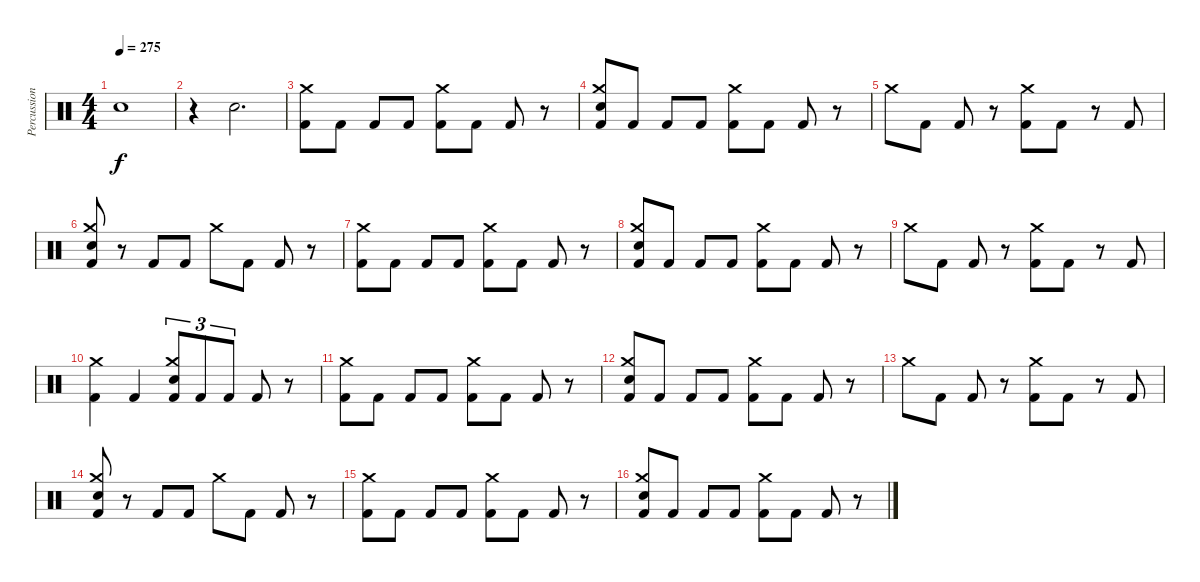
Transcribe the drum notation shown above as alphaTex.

\track ("Percussion" "Percussion") {instrument percussion}
\staff {score}
\articulation defaults
\ts (4 4)
\tempo 275
\clef neutral
\ks c "Snare (hit)"{t}.1{dy f}
|
r.4 "Electric Snare (hit)".2{d} |
("Crash medium (hit)" "Kick (hit) 2").8 "Kick (hit) 2".8 "Kick (hit) 2".8 "Kick (hit) 2".8 ("Crash medium (hit)" "Kick (hit) 2").8 "Kick (hit) 2".8 "Kick (hit) 2".8 r.8 |
("Crash medium (hit)" "Electric Snare (hit)" "Kick (hit) 2").8 "Kick (hit) 2".8 "Kick (hit) 2".8 "Kick (hit) 2".8 ("Crash medium (hit)" "Kick (hit) 2").8 "Kick (hit) 2".8 "Kick (hit) 2".8 r.8 |
"Crash medium (hit)".8 "Kick (hit) 2".8 "Kick (hit) 2".8 r.8 ("Crash medium (hit)" "Kick (hit) 2").8 "Kick (hit) 2".8 r.8 "Kick (hit) 2".8 |
("Crash medium (hit)" "Electric Snare (hit)" "Kick (hit) 2").8 r.8 "Kick (hit) 2".8 "Kick (hit) 2".8 "Crash medium (hit)".8 "Kick (hit) 2".8 "Kick (hit) 2".8 r.8 |
("Crash medium (hit)" "Kick (hit) 2").8 "Kick (hit) 2".8 "Kick (hit) 2".8 "Kick (hit) 2".8 ("Crash medium (hit)" "Kick (hit) 2").8 "Kick (hit) 2".8 "Kick (hit) 2".8 r.8 |
("Crash medium (hit)" "Electric Snare (hit)" "Kick (hit) 2").8 "Kick (hit) 2".8 "Kick (hit) 2".8 "Kick (hit) 2".8 ("Crash medium (hit)" "Kick (hit) 2").8 "Kick (hit) 2".8 "Kick (hit) 2".8 r.8 |
"Crash medium (hit)".8 "Kick (hit) 2".8 "Kick (hit) 2".8 r.8 ("Crash medium (hit)" "Kick (hit) 2").8 "Kick (hit) 2".8 r.8 "Kick (hit) 2".8 |
("Crash medium (hit)" "Kick (hit) 2").4 "Kick (hit) 2".4 ("Crash medium (hit)" "Electric Snare (hit)" "Kick (hit) 2").8{tu (3 2)} "Kick (hit) 2".8{tu (3 2)} "Kick (hit) 2".8{tu (3 2)} "Kick (hit) 2".8 r.8 |
("Crash medium (hit)" "Kick (hit) 2").8 "Kick (hit) 2".8 "Kick (hit) 2".8 "Kick (hit) 2".8 ("Crash medium (hit)" "Kick (hit) 2").8 "Kick (hit) 2".8 "Kick (hit) 2".8 r.8 |
("Crash medium (hit)" "Electric Snare (hit)" "Kick (hit) 2").8 "Kick (hit) 2".8 "Kick (hit) 2".8 "Kick (hit) 2".8 ("Crash medium (hit)" "Kick (hit) 2").8 "Kick (hit) 2".8 "Kick (hit) 2".8 r.8 |
"Crash medium (hit)".8 "Kick (hit) 2".8 "Kick (hit) 2".8 r.8 ("Crash medium (hit)" "Kick (hit) 2").8 "Kick (hit) 2".8 r.8 "Kick (hit) 2".8 |
("Crash medium (hit)" "Electric Snare (hit)" "Kick (hit) 2").8 r.8 "Kick (hit) 2".8 "Kick (hit) 2".8 "Crash medium (hit)".8 "Kick (hit) 2".8 "Kick (hit) 2".8 r.8 |
("Crash medium (hit)" "Kick (hit) 2").8 "Kick (hit) 2".8 "Kick (hit) 2".8 "Kick (hit) 2".8 ("Crash medium (hit)" "Kick (hit) 2").8 "Kick (hit) 2".8 "Kick (hit) 2".8 r.8 |
("Crash medium (hit)" "Electric Snare (hit)" "Kick (hit) 2").8 "Kick (hit) 2".8 "Kick (hit) 2".8 "Kick (hit) 2".8 ("Crash medium (hit)" "Kick (hit) 2").8 "Kick (hit) 2".8 "Kick (hit) 2".8 r.8
